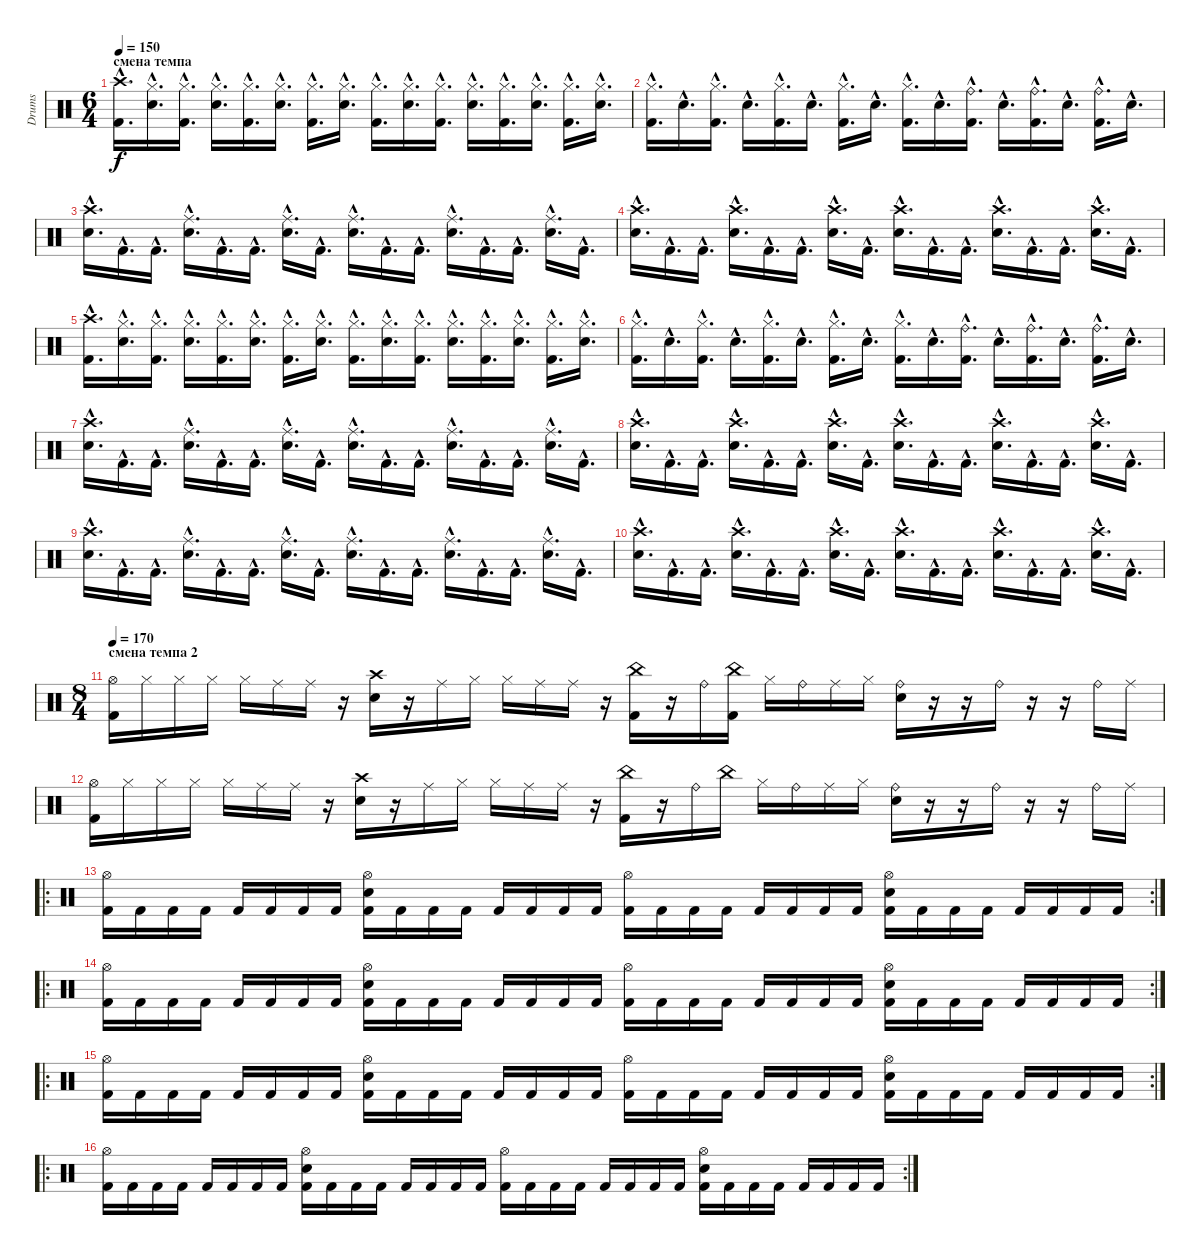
\track ("Drums" "Drums") {instrument percussion}
\staff {score}
\articulation defaults
\ts (6 4)
\section ("" "смена темпа")
\tempo 150
\clef neutral
\ks c
("Kick (hit) 2"{hac} "Crash high (hit)"{hac}).16{d dy f} ("Snare (hit) 2"{hac} "Hi-Hat (closed)"{hac}).16{d} ("Kick (hit) 2"{hac} "Hi-Hat (closed)"{hac}).16{d} ("Snare (hit) 2"{hac} "Hi-Hat (closed)"{hac}).16{d} ("Kick (hit) 2"{hac} "Hi-Hat (closed)"{hac}).16{d} ("Snare (hit) 2"{hac} "Hi-Hat (closed)"{hac}).16{d} ("Kick (hit) 2"{hac} "Hi-Hat (closed)"{hac}).16{d} ("Snare (hit) 2"{hac} "Hi-Hat (closed)"{hac}).16{d} ("Kick (hit) 2"{hac} "Hi-Hat (closed)"{hac}).16{d} ("Snare (hit) 2"{hac} "Hi-Hat (closed)"{hac}).16{d} ("Kick (hit) 2"{hac} "Hi-Hat (closed)"{hac}).16{d} ("Snare (hit) 2"{hac} "Hi-Hat (closed)"{hac}).16{d} ("Kick (hit) 2"{hac} "Hi-Hat (closed)"{hac}).16{d} ("Snare (hit) 2"{hac} "Hi-Hat (closed)"{hac}).16{d} ("Kick (hit) 2"{hac} "Hi-Hat (closed)"{hac}).16{d} ("Snare (hit) 2"{hac} "Hi-Hat (closed)"{hac}).16{d} |
("Kick (hit) 2"{hac} "Hi-Hat (closed)"{hac}).16{d} "Snare (hit) 2"{hac}.16{d} ("Kick (hit) 2"{hac} "Hi-Hat (closed)"{hac}).16{d} "Snare (hit) 2"{hac}.16{d} ("Kick (hit) 2"{hac} "Hi-Hat (closed)"{hac}).16{d} "Snare (hit) 2"{hac}.16{d} ("Kick (hit) 2"{hac} "Hi-Hat (closed)"{hac}).16{d} "Snare (hit) 2"{hac}.16{d} ("Kick (hit) 2"{hac} "Hi-Hat (closed)"{hac}).16{d} "Snare (hit) 2"{hac}.16{d} ("Kick (hit) 2"{hac} "Ride (bell)"{hac}).16{d} "Snare (hit) 2"{hac}.16{d} ("Kick (hit) 2"{hac} "Ride (bell)"{hac}).16{d} "Snare (hit) 2"{hac}.16{d} ("Kick (hit) 2"{hac} "Ride (bell)"{hac}).16{d} "Snare (hit) 2"{hac}.16{d} |
("Crash high (hit)"{hac} "Snare (hit) 2"{hac}).16{d} "Kick (hit) 2"{hac}.16{d} "Kick (hit) 2"{hac}.16{d} ("Ride (middle)"{hac} "Snare (hit) 2"{hac}).16{d} "Kick (hit) 2"{hac}.16{d} "Kick (hit) 2"{hac}.16{d} ("Ride (middle)"{hac} "Snare (hit) 2"{hac}).16{d} "Kick (hit) 2"{hac}.16{d} ("Ride (middle)"{hac} "Snare (hit) 2"{hac}).16{d} "Kick (hit) 2"{hac}.16{d} "Kick (hit) 2"{hac}.16{d} ("Ride (middle)"{hac} "Snare (hit) 2"{hac}).16{d} "Kick (hit) 2"{hac}.16{d} "Kick (hit) 2"{hac}.16{d} ("Ride (middle)"{hac} "Snare (hit) 2"{hac}).16{d} "Kick (hit) 2"{hac}.16{d} |
("Crash high (hit)"{hac} "Snare (hit) 2"{hac}).16{d} "Kick (hit) 2"{hac}.16{d} "Kick (hit) 2"{hac}.16{d} ("Crash high (hit)"{hac} "Snare (hit) 2"{hac}).16{d} "Kick (hit) 2"{hac}.16{d} "Kick (hit) 2"{hac}.16{d} ("Crash high (hit)"{hac} "Snare (hit) 2"{hac}).16{d} "Kick (hit) 2"{hac}.16{d} ("Crash high (hit)"{hac} "Snare (hit) 2"{hac}).16{d} "Kick (hit) 2"{hac}.16{d} "Kick (hit) 2"{hac}.16{d} ("Crash high (hit)"{hac} "Snare (hit) 2"{hac}).16{d} "Kick (hit) 2"{hac}.16{d} "Kick (hit) 2"{hac}.16{d} ("Crash high (hit)"{hac} "Snare (hit) 2"{hac}).16{d} "Kick (hit) 2"{hac}.16{d} |
("Kick (hit) 2"{hac} "Crash high (hit)"{hac}).16{d} ("Snare (hit) 2"{hac} "Hi-Hat (closed)"{hac}).16{d} ("Kick (hit) 2"{hac} "Hi-Hat (closed)"{hac}).16{d} ("Snare (hit) 2"{hac} "Hi-Hat (closed)"{hac}).16{d} ("Kick (hit) 2"{hac} "Hi-Hat (closed)"{hac}).16{d} ("Snare (hit) 2"{hac} "Hi-Hat (closed)"{hac}).16{d} ("Kick (hit) 2"{hac} "Hi-Hat (closed)"{hac}).16{d} ("Snare (hit) 2"{hac} "Hi-Hat (closed)"{hac}).16{d} ("Kick (hit) 2"{hac} "Hi-Hat (closed)"{hac}).16{d} ("Snare (hit) 2"{hac} "Hi-Hat (closed)"{hac}).16{d} ("Kick (hit) 2"{hac} "Hi-Hat (closed)"{hac}).16{d} ("Snare (hit) 2"{hac} "Hi-Hat (closed)"{hac}).16{d} ("Kick (hit) 2"{hac} "Hi-Hat (closed)"{hac}).16{d} ("Snare (hit) 2"{hac} "Hi-Hat (closed)"{hac}).16{d} ("Kick (hit) 2"{hac} "Hi-Hat (closed)"{hac}).16{d} ("Snare (hit) 2"{hac} "Hi-Hat (closed)"{hac}).16{d} |
("Kick (hit) 2"{hac} "Hi-Hat (closed)"{hac}).16{d} "Snare (hit) 2"{hac}.16{d} ("Kick (hit) 2"{hac} "Hi-Hat (closed)"{hac}).16{d} "Snare (hit) 2"{hac}.16{d} ("Kick (hit) 2"{hac} "Hi-Hat (closed)"{hac}).16{d} "Snare (hit) 2"{hac}.16{d} ("Kick (hit) 2"{hac} "Hi-Hat (closed)"{hac}).16{d} "Snare (hit) 2"{hac}.16{d} ("Kick (hit) 2"{hac} "Hi-Hat (closed)"{hac}).16{d} "Snare (hit) 2"{hac}.16{d} ("Kick (hit) 2"{hac} "Ride (bell)"{hac}).16{d} "Snare (hit) 2"{hac}.16{d} ("Kick (hit) 2"{hac} "Ride (bell)"{hac}).16{d} "Snare (hit) 2"{hac}.16{d} ("Kick (hit) 2"{hac} "Ride (bell)"{hac}).16{d} "Snare (hit) 2"{hac}.16{d} |
("Crash high (hit)"{hac} "Snare (hit) 2"{hac}).16{d} "Kick (hit) 2"{hac}.16{d} "Kick (hit) 2"{hac}.16{d} ("Ride (middle)"{hac} "Snare (hit) 2"{hac}).16{d} "Kick (hit) 2"{hac}.16{d} "Kick (hit) 2"{hac}.16{d} ("Ride (middle)"{hac} "Snare (hit) 2"{hac}).16{d} "Kick (hit) 2"{hac}.16{d} ("Ride (middle)"{hac} "Snare (hit) 2"{hac}).16{d} "Kick (hit) 2"{hac}.16{d} "Kick (hit) 2"{hac}.16{d} ("Ride (middle)"{hac} "Snare (hit) 2"{hac}).16{d} "Kick (hit) 2"{hac}.16{d} "Kick (hit) 2"{hac}.16{d} ("Ride (middle)"{hac} "Snare (hit) 2"{hac}).16{d} "Kick (hit) 2"{hac}.16{d} |
("Crash high (hit)"{hac} "Snare (hit) 2"{hac}).16{d} "Kick (hit) 2"{hac}.16{d} "Kick (hit) 2"{hac}.16{d} ("Crash high (hit)"{hac} "Snare (hit) 2"{hac}).16{d} "Kick (hit) 2"{hac}.16{d} "Kick (hit) 2"{hac}.16{d} ("Crash high (hit)"{hac} "Snare (hit) 2"{hac}).16{d} "Kick (hit) 2"{hac}.16{d} ("Crash high (hit)"{hac} "Snare (hit) 2"{hac}).16{d} "Kick (hit) 2"{hac}.16{d} "Kick (hit) 2"{hac}.16{d} ("Crash high (hit)"{hac} "Snare (hit) 2"{hac}).16{d} "Kick (hit) 2"{hac}.16{d} "Kick (hit) 2"{hac}.16{d} ("Crash high (hit)"{hac} "Snare (hit) 2"{hac}).16{d} "Kick (hit) 2"{hac}.16{d} |
("Crash high (hit)"{hac} "Snare (hit) 2"{hac}).16{d} "Kick (hit) 2"{hac}.16{d} "Kick (hit) 2"{hac}.16{d} ("Ride (middle)"{hac} "Snare (hit) 2"{hac}).16{d} "Kick (hit) 2"{hac}.16{d} "Kick (hit) 2"{hac}.16{d} ("Ride (middle)"{hac} "Snare (hit) 2"{hac}).16{d} "Kick (hit) 2"{hac}.16{d} ("Ride (middle)"{hac} "Snare (hit) 2"{hac}).16{d} "Kick (hit) 2"{hac}.16{d} "Kick (hit) 2"{hac}.16{d} ("Ride (middle)"{hac} "Snare (hit) 2"{hac}).16{d} "Kick (hit) 2"{hac}.16{d} "Kick (hit) 2"{hac}.16{d} ("Ride (middle)"{hac} "Snare (hit) 2"{hac}).16{d} "Kick (hit) 2"{hac}.16{d} |
("Crash high (hit)"{hac} "Snare (hit) 2"{hac}).16{d} "Kick (hit) 2"{hac}.16{d} "Kick (hit) 2"{hac}.16{d} ("Crash high (hit)"{hac} "Snare (hit) 2"{hac}).16{d} "Kick (hit) 2"{hac}.16{d} "Kick (hit) 2"{hac}.16{d} ("Crash high (hit)"{hac} "Snare (hit) 2"{hac}).16{d} "Kick (hit) 2"{hac}.16{d} ("Crash high (hit)"{hac} "Snare (hit) 2"{hac}).16{d} "Kick (hit) 2"{hac}.16{d} "Kick (hit) 2"{hac}.16{d} ("Crash high (hit)"{hac} "Snare (hit) 2"{hac}).16{d} "Kick (hit) 2"{hac}.16{d} "Kick (hit) 2"{hac}.16{d} ("Crash high (hit)"{hac} "Snare (hit) 2"{hac}).16{d} "Kick (hit) 2"{hac}.16{d} |
\ts (8 4)
\section ("" "смена темпа 2")
\tempo 170
("Hi-Hat (open)" "Kick (hit) 2").16 "Hi-Hat (closed)".16 "Hi-Hat (closed)".16 "Hi-Hat (closed)".16 "Hi-Hat (closed)".16 "Ride (middle)".16 "Ride (middle)".16 r.16 ("Crash high (hit)" "Snare (hit) 2").16 r.16 "Ride (middle)".16 "Hi-Hat (closed)".16 "Hi-Hat (closed)".16 "Ride (middle)".16 "Ride (middle)".16 r.16 ("China (hit)" "Kick (hit) 2").16 r.16 "Ride (bell)".16 ("China (hit)" "Kick (hit) 2").16 "Hi-Hat (closed)".16 "Ride (bell)".16 "Ride (middle)".16 "Hi-Hat (closed)".16 ("Ride (bell)" "Snare (hit) 2").16 r.16 r.16 "Ride (bell)".16 r.16 r.16 "Ride (bell)".16 "Ride (middle)".16 |
("Hi-Hat (open)" "Kick (hit) 2").16 "Hi-Hat (closed)".16 "Hi-Hat (closed)".16 "Hi-Hat (closed)".16 "Hi-Hat (closed)".16 "Ride (middle)".16 "Ride (middle)".16 r.16 ("Crash high (hit)" "Snare (hit) 2").16 r.16 "Ride (middle)".16 "Hi-Hat (closed)".16 "Hi-Hat (closed)".16 "Ride (middle)".16 "Ride (middle)".16 r.16 ("China (hit)" "Kick (hit) 2").16 r.16 "Ride (bell)".16 "China (hit)".16 "Hi-Hat (closed)".16 "Ride (bell)".16 "Ride (middle)".16 "Hi-Hat (closed)".16 ("Ride (bell)" "Snare (hit) 2").16 r.16 r.16 "Ride (bell)".16 r.16 r.16 "Ride (bell)".16 "Ride (middle)".16 |
\ro
\rc 2
("Hi-Hat (open)" "Kick (hit) 2").16 "Kick (hit) 2".16 "Kick (hit) 2".16 "Kick (hit) 2".16 "Kick (hit) 2".16 "Kick (hit) 2".16 "Kick (hit) 2".16 "Kick (hit) 2".16 ("Hi-Hat (open)" "Snare (hit) 2" "Kick (hit) 2").16 "Kick (hit) 2".16 "Kick (hit) 2".16 "Kick (hit) 2".16 "Kick (hit) 2".16 "Kick (hit) 2".16 "Kick (hit) 2".16 "Kick (hit) 2".16 ("Hi-Hat (open)" "Kick (hit) 2").16 "Kick (hit) 2".16 "Kick (hit) 2".16 "Kick (hit) 2".16 "Kick (hit) 2".16 "Kick (hit) 2".16 "Kick (hit) 2".16 "Kick (hit) 2".16 ("Hi-Hat (open)" "Snare (hit) 2" "Kick (hit) 2").16 "Kick (hit) 2".16 "Kick (hit) 2".16 "Kick (hit) 2".16 "Kick (hit) 2".16 "Kick (hit) 2".16 "Kick (hit) 2".16 "Kick (hit) 2".16 |
\ro
\rc 2
("Hi-Hat (open)" "Kick (hit) 2").16 "Kick (hit) 2".16 "Kick (hit) 2".16 "Kick (hit) 2".16 "Kick (hit) 2".16 "Kick (hit) 2".16 "Kick (hit) 2".16 "Kick (hit) 2".16 ("Hi-Hat (open)" "Snare (hit) 2" "Kick (hit) 2").16 "Kick (hit) 2".16 "Kick (hit) 2".16 "Kick (hit) 2".16 "Kick (hit) 2".16 "Kick (hit) 2".16 "Kick (hit) 2".16 "Kick (hit) 2".16 ("Hi-Hat (open)" "Kick (hit) 2").16 "Kick (hit) 2".16 "Kick (hit) 2".16 "Kick (hit) 2".16 "Kick (hit) 2".16 "Kick (hit) 2".16 "Kick (hit) 2".16 "Kick (hit) 2".16 ("Hi-Hat (open)" "Snare (hit) 2" "Kick (hit) 2").16 "Kick (hit) 2".16 "Kick (hit) 2".16 "Kick (hit) 2".16 "Kick (hit) 2".16 "Kick (hit) 2".16 "Kick (hit) 2".16 "Kick (hit) 2".16 |
\ro
\rc 2
("Hi-Hat (open)" "Kick (hit) 2").16 "Kick (hit) 2".16 "Kick (hit) 2".16 "Kick (hit) 2".16 "Kick (hit) 2".16 "Kick (hit) 2".16 "Kick (hit) 2".16 "Kick (hit) 2".16 ("Hi-Hat (open)" "Snare (hit) 2" "Kick (hit) 2").16 "Kick (hit) 2".16 "Kick (hit) 2".16 "Kick (hit) 2".16 "Kick (hit) 2".16 "Kick (hit) 2".16 "Kick (hit) 2".16 "Kick (hit) 2".16 ("Hi-Hat (open)" "Kick (hit) 2").16 "Kick (hit) 2".16 "Kick (hit) 2".16 "Kick (hit) 2".16 "Kick (hit) 2".16 "Kick (hit) 2".16 "Kick (hit) 2".16 "Kick (hit) 2".16 ("Hi-Hat (open)" "Snare (hit) 2" "Kick (hit) 2").16 "Kick (hit) 2".16 "Kick (hit) 2".16 "Kick (hit) 2".16 "Kick (hit) 2".16 "Kick (hit) 2".16 "Kick (hit) 2".16 "Kick (hit) 2".16 |
\ro
\rc 2
("Hi-Hat (open)" "Kick (hit) 2").16 "Kick (hit) 2".16 "Kick (hit) 2".16 "Kick (hit) 2".16 "Kick (hit) 2".16 "Kick (hit) 2".16 "Kick (hit) 2".16 "Kick (hit) 2".16 ("Hi-Hat (open)" "Snare (hit) 2" "Kick (hit) 2").16 "Kick (hit) 2".16 "Kick (hit) 2".16 "Kick (hit) 2".16 "Kick (hit) 2".16 "Kick (hit) 2".16 "Kick (hit) 2".16 "Kick (hit) 2".16 ("Hi-Hat (open)" "Kick (hit) 2").16 "Kick (hit) 2".16 "Kick (hit) 2".16 "Kick (hit) 2".16 "Kick (hit) 2".16 "Kick (hit) 2".16 "Kick (hit) 2".16 "Kick (hit) 2".16 ("Hi-Hat (open)" "Snare (hit) 2" "Kick (hit) 2").16 "Kick (hit) 2".16 "Kick (hit) 2".16 "Kick (hit) 2".16 "Kick (hit) 2".16 "Kick (hit) 2".16 "Kick (hit) 2".16 "Kick (hit) 2".16
